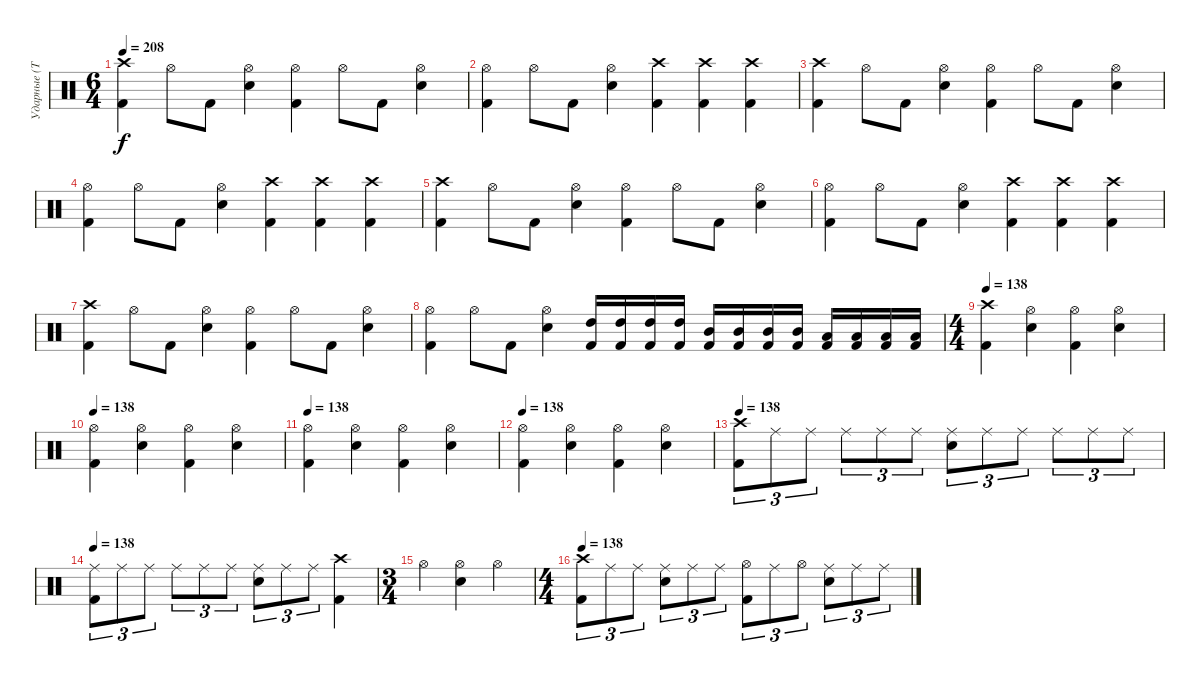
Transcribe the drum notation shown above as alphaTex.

\track ("Ударные (Тьодальв)" "Ударные (Т") {instrument percussion}
\staff {score}
\articulation defaults
\ts (6 4)
\tempo 208
\clef neutral
\ks c
("Kick (hit) 2" "Crash high (hit)").4{dy f} "Hi-Hat (open)".8 "Kick (hit) 2".8 ("Snare (hit) 2" "Hi-Hat (open)").4 ("Kick (hit) 2" "Hi-Hat (open)").4 "Hi-Hat (open)".8 "Kick (hit) 2".8 ("Snare (hit) 2" "Hi-Hat (open)").4 |
("Kick (hit) 2" "Hi-Hat (open)").4 "Hi-Hat (open)".8 "Kick (hit) 2".8 ("Snare (hit) 2" "Hi-Hat (open)").4 ("Kick (hit) 2" "Crash high (hit)").4 ("Kick (hit) 2" "Crash high (hit)").4 ("Kick (hit) 2" "Crash high (hit)").4 |
("Kick (hit) 2" "Crash high (hit)").4 "Hi-Hat (open)".8 "Kick (hit) 2".8 ("Snare (hit) 2" "Hi-Hat (open)").4 ("Kick (hit) 2" "Hi-Hat (open)").4 "Hi-Hat (open)".8 "Kick (hit) 2".8 ("Snare (hit) 2" "Hi-Hat (open)").4 |
("Kick (hit) 2" "Hi-Hat (open)").4 "Hi-Hat (open)".8 "Kick (hit) 2".8 ("Snare (hit) 2" "Hi-Hat (open)").4 ("Kick (hit) 2" "Crash high (hit)").4 ("Kick (hit) 2" "Crash high (hit)").4 ("Kick (hit) 2" "Crash high (hit)").4 |
("Kick (hit) 2" "Crash high (hit)").4 "Hi-Hat (open)".8 "Kick (hit) 2".8 ("Snare (hit) 2" "Hi-Hat (open)").4 ("Kick (hit) 2" "Hi-Hat (open)").4 "Hi-Hat (open)".8 "Kick (hit) 2".8 ("Snare (hit) 2" "Hi-Hat (open)").4 |
("Kick (hit) 2" "Hi-Hat (open)").4 "Hi-Hat (open)".8 "Kick (hit) 2".8 ("Snare (hit) 2" "Hi-Hat (open)").4 ("Kick (hit) 2" "Crash high (hit)").4 ("Kick (hit) 2" "Crash high (hit)").4 ("Kick (hit) 2" "Crash high (hit)").4 |
("Kick (hit) 2" "Crash high (hit)").4 "Hi-Hat (open)".8 "Kick (hit) 2".8 ("Snare (hit) 2" "Hi-Hat (open)").4 ("Kick (hit) 2" "Hi-Hat (open)").4 "Hi-Hat (open)".8 "Kick (hit) 2".8 ("Snare (hit) 2" "Hi-Hat (open)").4 |
("Kick (hit) 2" "Hi-Hat (open)").4 "Hi-Hat (open)".8 "Kick (hit) 2".8 ("Snare (hit) 2" "Hi-Hat (open)").4 ("Kick (hit) 2" "High Tom (hit)").16 ("Kick (hit) 2" "High Tom (hit)").16 ("Kick (hit) 2" "High Tom (hit)").16 ("Kick (hit) 2" "High Tom (hit)").16 ("Kick (hit) 2" "Mid Tom (hit)").16 ("Kick (hit) 2" "Mid Tom (hit)").16 ("Kick (hit) 2" "Mid Tom (hit)").16 ("Kick (hit) 2" "Mid Tom (hit)").16 ("Kick (hit) 2" "Low Tom (hit)").16 ("Kick (hit) 2" "Low Tom (hit)").16 ("Kick (hit) 2" "Low Tom (hit)").16 ("Kick (hit) 2" "Low Tom (hit)").16 |
\ts (4 4)
\tempo 138
("Kick (hit) 2" "Crash high (hit)").4 ("Snare (hit) 2" "Hi-Hat (open)").4 ("Kick (hit) 2" "Hi-Hat (open)").4 ("Snare (hit) 2" "Hi-Hat (open)").4 |
\tempo 138
("Kick (hit) 2" "Hi-Hat (open)").4 ("Snare (hit) 2" "Hi-Hat (open)").4 ("Kick (hit) 2" "Hi-Hat (open)").4 ("Snare (hit) 2" "Hi-Hat (open)").4 |
\tempo 138
("Kick (hit) 2" "Hi-Hat (open)").4 ("Snare (hit) 2" "Hi-Hat (open)").4 ("Kick (hit) 2" "Hi-Hat (open)").4 ("Snare (hit) 2" "Hi-Hat (open)").4 |
\tempo 138
("Kick (hit) 2" "Hi-Hat (open)").4 ("Snare (hit) 2" "Hi-Hat (open)").4 ("Kick (hit) 2" "Hi-Hat (open)").4 ("Snare (hit) 2" "Hi-Hat (open)").4 |
\tempo 138
("Kick (hit) 2" "Crash high (hit)").8{tu (3 2)} "Ride (middle)".8{tu (3 2)} "Ride (middle)".8{tu (3 2)} "Ride (middle)".8{tu (3 2)} "Ride (middle)".8{tu (3 2)} "Ride (middle)".8{tu (3 2)} ("Snare (hit) 2" "Ride (middle)").8{tu (3 2)} "Ride (middle)".8{tu (3 2)} "Ride (middle)".8{tu (3 2)} "Ride (middle)".8{tu (3 2)} "Ride (middle)".8{tu (3 2)} "Ride (middle)".8{tu (3 2)} |
\tempo 138
("Kick (hit) 2" "Ride (middle)").8{tu (3 2)} "Ride (middle)".8{tu (3 2)} "Ride (middle)".8{tu (3 2)} "Ride (middle)".8{tu (3 2)} "Ride (middle)".8{tu (3 2)} "Ride (middle)".8{tu (3 2)} ("Snare (hit) 2" "Ride (middle)").8{tu (3 2)} "Ride (middle)".8{tu (3 2)} "Ride (middle)".8{tu (3 2)} ("Kick (hit) 2" "Crash high (hit)").4 |
\ts (3 4)
"Hi-Hat (open)".4 ("Snare (hit) 2" "Hi-Hat (open)").4 "Hi-Hat (open)".4 |
\ts (4 4)
\tempo 138
("Kick (hit) 2" "Crash high (hit)").8{tu (3 2)} "Ride (middle)".8{tu (3 2)} "Ride (middle)".8{tu (3 2)} ("Snare (hit) 2" "Ride (middle)").8{tu (3 2)} "Ride (middle)".8{tu (3 2)} "Ride (middle)".8{tu (3 2)} ("Kick (hit) 2" "Hi-Hat (open)").8{tu (3 2)} "Ride (middle)".8{tu (3 2)} "Hi-Hat (open)".8{tu (3 2)} ("Snare (hit) 2" "Ride (middle)").8{tu (3 2)} "Ride (middle)".8{tu (3 2)} "Ride (middle)".8{tu (3 2)}
